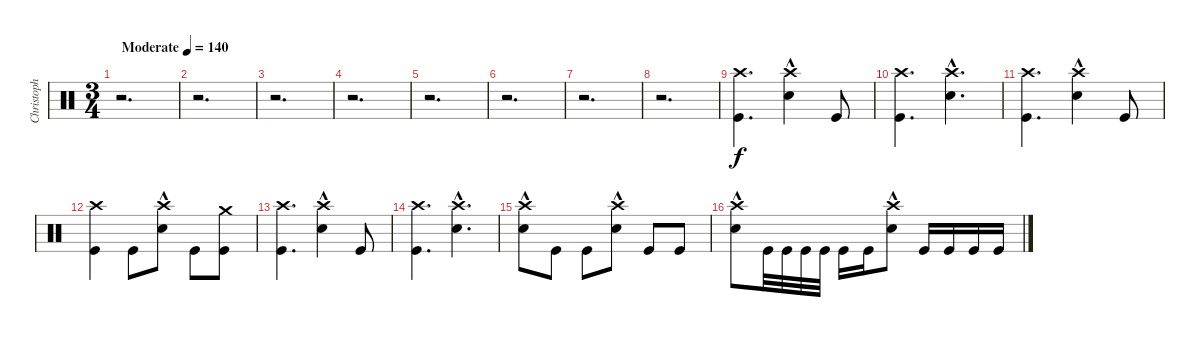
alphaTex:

\track ("Christoph \"Doom\" Schneider" "Christoph ") {instrument percussion}
\staff {score}
\articulation defaults
\ts (3 4)
\tempo (140 "Moderate")
\clef neutral
\ks c
r.2{d dy f} |
r.2{d} |
r.2{d} |
r.2{d} |
r.2{d} |
r.2{d} |
r.2{d} |
r.2{d} |
("Crash high (hit)" "Kick (hit)").4{d} ("Crash high (hit)" "Snare (hit) 2"{hac}).4 "Kick (hit)".8 |
("Crash high (hit)" "Kick (hit)").4{d} ("Crash high (hit)" "Snare (hit) 2"{hac}).4{d} |
("Crash high (hit)" "Kick (hit)").4{d} ("Crash high (hit)" "Snare (hit) 2"{hac}).4 "Kick (hit)".8 |
("Crash high (hit)" "Kick (hit)").4 "Kick (hit)".8 ("Crash high (hit)" "Snare (hit) 2"{hac}).8 "Kick (hit)".8 ("Crash medium (hit)" "Kick (hit)").8 |
("Crash high (hit)" "Kick (hit)").4{d} ("Crash high (hit)" "Snare (hit) 2"{hac}).4 "Kick (hit)".8 |
("Crash high (hit)" "Kick (hit)").4{d} ("Crash high (hit)" "Snare (hit) 2"{hac}).4{d} |
("Crash high (hit)" "Snare (hit) 2"{hac}).8 "Kick (hit)".8 "Kick (hit)".8 ("Crash high (hit)" "Snare (hit) 2"{hac}).8 "Kick (hit)".8 "Kick (hit)".8 |
("Crash high (hit)" "Snare (hit) 2"{hac}).8 "Kick (hit)".32 "Kick (hit)".32 "Kick (hit)".32 "Kick (hit)".32 "Kick (hit)".16 "Kick (hit)".16 ("Crash high (hit)" "Snare (hit) 2"{hac}).8 "Kick (hit)".16 "Kick (hit)".16 "Kick (hit)".16 "Kick (hit)".16
